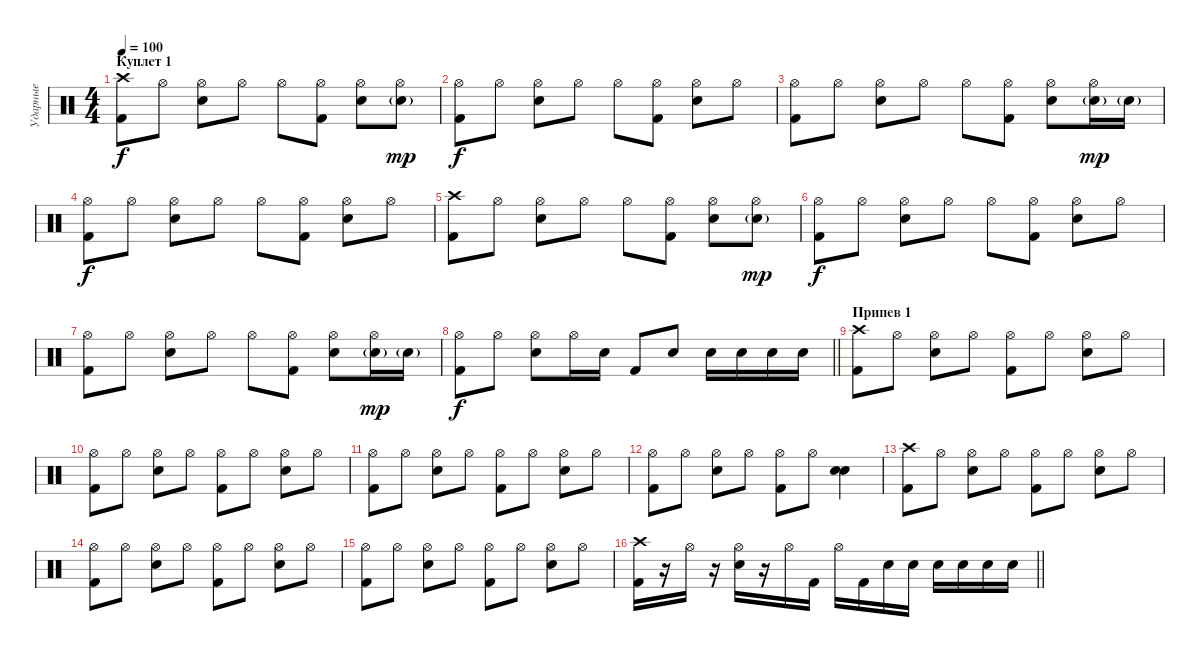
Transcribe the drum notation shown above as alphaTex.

\track ("Ударные" "Ударные") {instrument percussion}
\staff {score}
\articulation defaults
\ts (4 4)
\section ("" "Куплет 1")
\tempo 100
\clef neutral
\ks c
("Crash high (hit)" "Kick (hit) 2").8{dy f} "Hi-Hat (open)".8 ("Hi-Hat (open)" "Electric Snare (hit)").8 "Hi-Hat (open)".8 "Hi-Hat (open)".8 ("Hi-Hat (open)" "Kick (hit) 2").8 ("Hi-Hat (open)" "Electric Snare (hit)").8 ("Hi-Hat (open)" "Electric Snare (hit)"{g}).8{dy mp} |
("Hi-Hat (open)" "Kick (hit) 2").8{dy f} "Hi-Hat (open)".8 ("Hi-Hat (open)" "Electric Snare (hit)").8 "Hi-Hat (open)".8 "Hi-Hat (open)".8 ("Hi-Hat (open)" "Kick (hit) 2").8 ("Hi-Hat (open)" "Electric Snare (hit)").8 "Hi-Hat (open)".8 |
("Hi-Hat (open)" "Kick (hit) 2").8 "Hi-Hat (open)".8 ("Hi-Hat (open)" "Electric Snare (hit)").8 "Hi-Hat (open)".8 "Hi-Hat (open)".8 ("Hi-Hat (open)" "Kick (hit) 2").8 ("Hi-Hat (open)" "Electric Snare (hit)").8 ("Hi-Hat (open)" "Electric Snare (hit)"{g}).16{dy mp} "Electric Snare (hit)"{g}.16 |
("Hi-Hat (open)" "Kick (hit) 2").8{dy f} "Hi-Hat (open)".8 ("Hi-Hat (open)" "Electric Snare (hit)").8 "Hi-Hat (open)".8 "Hi-Hat (open)".8 ("Hi-Hat (open)" "Kick (hit) 2").8 ("Hi-Hat (open)" "Electric Snare (hit)").8 "Hi-Hat (open)".8 |
("Crash high (hit)" "Kick (hit) 2").8 "Hi-Hat (open)".8 ("Hi-Hat (open)" "Electric Snare (hit)").8 "Hi-Hat (open)".8 "Hi-Hat (open)".8 ("Hi-Hat (open)" "Kick (hit) 2").8 ("Hi-Hat (open)" "Electric Snare (hit)").8 ("Hi-Hat (open)" "Electric Snare (hit)"{g}).8{dy mp} |
("Hi-Hat (open)" "Kick (hit) 2").8{dy f} "Hi-Hat (open)".8 ("Hi-Hat (open)" "Electric Snare (hit)").8 "Hi-Hat (open)".8 "Hi-Hat (open)".8 ("Hi-Hat (open)" "Kick (hit) 2").8 ("Hi-Hat (open)" "Electric Snare (hit)").8 "Hi-Hat (open)".8 |
("Hi-Hat (open)" "Kick (hit) 2").8 "Hi-Hat (open)".8 ("Hi-Hat (open)" "Electric Snare (hit)").8 "Hi-Hat (open)".8 "Hi-Hat (open)".8 ("Hi-Hat (open)" "Kick (hit) 2").8 ("Hi-Hat (open)" "Electric Snare (hit)").8 ("Hi-Hat (open)" "Electric Snare (hit)"{g}).16{dy mp} "Electric Snare (hit)"{g}.16 |
\barLineRight lightlight
("Hi-Hat (open)" "Kick (hit) 2").8{dy f} "Hi-Hat (open)".8 ("Hi-Hat (open)" "Electric Snare (hit)").8 "Hi-Hat (open)".16 "Electric Snare (hit)".16 "Kick (hit) 2".8 "Electric Snare (hit)".8 "Electric Snare (hit)".16 "Electric Snare (hit)".16 "Electric Snare (hit)".16 "Electric Snare (hit)".16 |
\section ("" "Припев 1")
("Crash high (hit)" "Kick (hit) 2").8 "Hi-Hat (open)".8 ("Hi-Hat (open)" "Electric Snare (hit)").8 "Hi-Hat (open)".8 ("Hi-Hat (open)" "Kick (hit) 2").8 "Hi-Hat (open)".8 ("Hi-Hat (open)" "Electric Snare (hit)").8 "Hi-Hat (open)".8 |
("Hi-Hat (open)" "Kick (hit) 2").8 "Hi-Hat (open)".8 ("Hi-Hat (open)" "Electric Snare (hit)").8 "Hi-Hat (open)".8 ("Hi-Hat (open)" "Kick (hit) 2").8 "Hi-Hat (open)".8 ("Hi-Hat (open)" "Electric Snare (hit)").8 "Hi-Hat (open)".8 |
("Hi-Hat (open)" "Kick (hit) 2").8 "Hi-Hat (open)".8 ("Hi-Hat (open)" "Electric Snare (hit)").8 "Hi-Hat (open)".8 ("Hi-Hat (open)" "Kick (hit) 2").8 "Hi-Hat (open)".8 ("Hi-Hat (open)" "Electric Snare (hit)").8 "Hi-Hat (open)".8 |
("Hi-Hat (open)" "Kick (hit) 2").8 "Hi-Hat (open)".8 ("Hi-Hat (open)" "Electric Snare (hit)").8 "Hi-Hat (open)".8 ("Hi-Hat (open)" "Kick (hit) 2").8 "Hi-Hat (open)".8 ("Electric Snare (hit)" "Electric Snare (hit)").4 |
("Crash high (hit)" "Kick (hit) 2").8 "Hi-Hat (open)".8 ("Hi-Hat (open)" "Electric Snare (hit)").8 "Hi-Hat (open)".8 ("Hi-Hat (open)" "Kick (hit) 2").8 "Hi-Hat (open)".8 ("Hi-Hat (open)" "Electric Snare (hit)").8 "Hi-Hat (open)".8 |
("Hi-Hat (open)" "Kick (hit) 2").8 "Hi-Hat (open)".8 ("Hi-Hat (open)" "Electric Snare (hit)").8 "Hi-Hat (open)".8 ("Hi-Hat (open)" "Kick (hit) 2").8 "Hi-Hat (open)".8 ("Hi-Hat (open)" "Electric Snare (hit)").8 "Hi-Hat (open)".8 |
("Hi-Hat (open)" "Kick (hit) 2").8 "Hi-Hat (open)".8 ("Hi-Hat (open)" "Electric Snare (hit)").8 "Hi-Hat (open)".8 ("Hi-Hat (open)" "Kick (hit) 2").8 "Hi-Hat (open)".8 ("Hi-Hat (open)" "Electric Snare (hit)").8 "Hi-Hat (open)".8 |
\barLineRight lightlight
("Crash high (hit)" "Kick (hit) 2").16 r.16 "Hi-Hat (open)".16 r.16 ("Hi-Hat (open)" "Electric Snare (hit)").16 r.16 "Hi-Hat (open)".16 "Kick (hit) 2".16 "Hi-Hat (open)".16 "Kick (hit) 2".16 "Electric Snare (hit)".16 "Electric Snare (hit)".16 "Electric Snare (hit)".16 "Electric Snare (hit)".16 "Electric Snare (hit)".16 "Electric Snare (hit)".16
